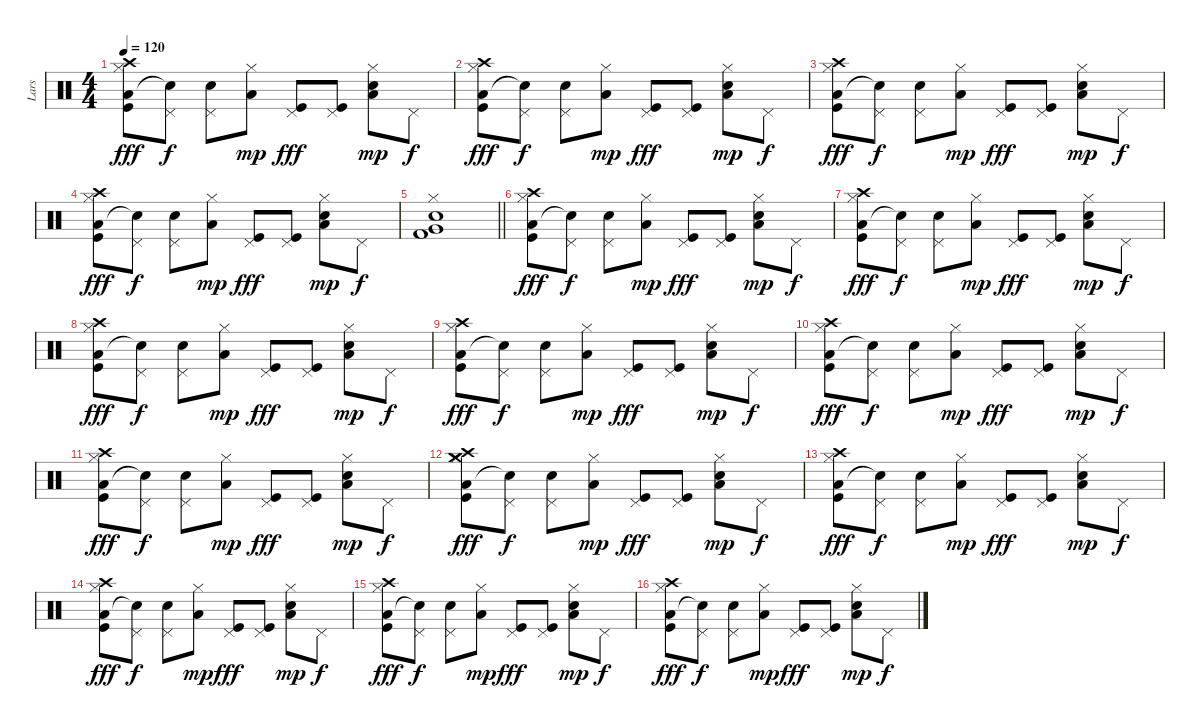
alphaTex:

\track ("Lars" "Lars") {instrument percussion}
\staff {score}
\articulation defaults
\ts (4 4)
\tempo 120
\clef neutral
\ks c
("Hi-Hat (closed)" "Low Floor Tom (hit)" "Crash high (hit)" "Kick (hit)").8{dy fff} ("Pedal Hi-Hat (hit)" "Snare (hit)"{t}).8{dy f} ("Pedal Hi-Hat (hit)" "Electric Snare (hit)").8 ("Hi-Hat (closed)" "Low Floor Tom (hit)").8{dy mp} ("Pedal Hi-Hat (hit)" "Kick (hit)").8{dy fff} ("Pedal Hi-Hat (hit)" "Kick (hit)").8 ("Hi-Hat (closed)" "Low Floor Tom (hit)" "Electric Snare (hit)").8{dy mp} "Pedal Hi-Hat (hit)".8{dy f} |
("Hi-Hat (closed)" "Low Floor Tom (hit)" "Crash high (hit)" "Kick (hit)").8{dy fff} ("Pedal Hi-Hat (hit)" "Snare (hit)"{t}).8{dy f} ("Pedal Hi-Hat (hit)" "Electric Snare (hit)").8 ("Hi-Hat (closed)" "Low Floor Tom (hit)").8{dy mp} ("Pedal Hi-Hat (hit)" "Kick (hit)").8{dy fff} ("Pedal Hi-Hat (hit)" "Kick (hit)").8 ("Hi-Hat (closed)" "Low Floor Tom (hit)" "Electric Snare (hit)").8{dy mp} "Pedal Hi-Hat (hit)".8{dy f} |
("Hi-Hat (closed)" "Low Floor Tom (hit)" "Crash high (hit)" "Kick (hit)").8{dy fff} ("Pedal Hi-Hat (hit)" "Snare (hit)"{t}).8{dy f} ("Pedal Hi-Hat (hit)" "Electric Snare (hit)").8 ("Hi-Hat (closed)" "Low Floor Tom (hit)").8{dy mp} ("Pedal Hi-Hat (hit)" "Kick (hit)").8{dy fff} ("Pedal Hi-Hat (hit)" "Kick (hit)").8 ("Hi-Hat (closed)" "Low Floor Tom (hit)" "Electric Snare (hit)").8{dy mp} "Pedal Hi-Hat (hit)".8{dy f} |
("Hi-Hat (closed)" "Low Floor Tom (hit)" "Crash high (hit)" "Kick (hit)").8{dy fff} ("Pedal Hi-Hat (hit)" "Snare (hit)"{t}).8{dy f} ("Pedal Hi-Hat (hit)" "Electric Snare (hit)").8 ("Hi-Hat (closed)" "Low Floor Tom (hit)").8{dy mp} ("Pedal Hi-Hat (hit)" "Kick (hit)").8{dy fff} ("Pedal Hi-Hat (hit)" "Kick (hit)").8 ("Hi-Hat (closed)" "Low Floor Tom (hit)" "Electric Snare (hit)").8{dy mp} "Pedal Hi-Hat (hit)".8{dy f} |
\barLineRight lightlight
("Kick (hit) 2" "Very Low Tom (hit)" "Electric Snare (hit)" "Hi-Hat (closed)").1 |
("Hi-Hat (closed)" "Low Floor Tom (hit)" "Crash high (hit)" "Kick (hit)").8{dy fff} ("Pedal Hi-Hat (hit)" "Snare (hit)"{t}).8{dy f} ("Pedal Hi-Hat (hit)" "Electric Snare (hit)").8 ("Hi-Hat (closed)" "Low Floor Tom (hit)").8{dy mp} ("Pedal Hi-Hat (hit)" "Kick (hit)").8{dy fff} ("Pedal Hi-Hat (hit)" "Kick (hit)").8 ("Hi-Hat (closed)" "Low Floor Tom (hit)" "Electric Snare (hit)").8{dy mp} "Pedal Hi-Hat (hit)".8{dy f} |
("Hi-Hat (closed)" "Low Floor Tom (hit)" "Crash high (hit)" "Kick (hit)").8{dy fff} ("Pedal Hi-Hat (hit)" "Snare (hit)"{t}).8{dy f} ("Pedal Hi-Hat (hit)" "Electric Snare (hit)").8 ("Hi-Hat (closed)" "Low Floor Tom (hit)").8{dy mp} ("Pedal Hi-Hat (hit)" "Kick (hit)").8{dy fff} ("Pedal Hi-Hat (hit)" "Kick (hit)").8 ("Hi-Hat (closed)" "Low Floor Tom (hit)" "Electric Snare (hit)").8{dy mp} "Pedal Hi-Hat (hit)".8{dy f} |
("Hi-Hat (closed)" "Low Floor Tom (hit)" "Crash high (hit)" "Kick (hit)").8{dy fff} ("Pedal Hi-Hat (hit)" "Snare (hit)"{t}).8{dy f} ("Pedal Hi-Hat (hit)" "Electric Snare (hit)").8 ("Hi-Hat (closed)" "Low Floor Tom (hit)").8{dy mp} ("Pedal Hi-Hat (hit)" "Kick (hit)").8{dy fff} ("Pedal Hi-Hat (hit)" "Kick (hit)").8 ("Hi-Hat (closed)" "Low Floor Tom (hit)" "Electric Snare (hit)").8{dy mp} "Pedal Hi-Hat (hit)".8{dy f} |
("Hi-Hat (closed)" "Low Floor Tom (hit)" "Crash high (hit)" "Kick (hit)").8{dy fff} ("Pedal Hi-Hat (hit)" "Snare (hit)"{t}).8{dy f} ("Pedal Hi-Hat (hit)" "Electric Snare (hit)").8 ("Hi-Hat (closed)" "Low Floor Tom (hit)").8{dy mp} ("Pedal Hi-Hat (hit)" "Kick (hit)").8{dy fff} ("Pedal Hi-Hat (hit)" "Kick (hit)").8 ("Hi-Hat (closed)" "Low Floor Tom (hit)" "Electric Snare (hit)").8{dy mp} "Pedal Hi-Hat (hit)".8{dy f} |
("Hi-Hat (closed)" "Low Floor Tom (hit)" "Crash high (hit)" "Kick (hit)").8{dy fff} ("Pedal Hi-Hat (hit)" "Snare (hit)"{t}).8{dy f} ("Pedal Hi-Hat (hit)" "Electric Snare (hit)").8 ("Hi-Hat (closed)" "Low Floor Tom (hit)").8{dy mp} ("Pedal Hi-Hat (hit)" "Kick (hit)").8{dy fff} ("Pedal Hi-Hat (hit)" "Kick (hit)").8 ("Hi-Hat (closed)" "Low Floor Tom (hit)" "Electric Snare (hit)").8{dy mp} "Pedal Hi-Hat (hit)".8{dy f} |
("Hi-Hat (closed)" "Low Floor Tom (hit)" "Crash high (hit)" "Kick (hit)").8{dy fff} ("Pedal Hi-Hat (hit)" "Snare (hit)"{t}).8{dy f} ("Pedal Hi-Hat (hit)" "Electric Snare (hit)").8 ("Hi-Hat (closed)" "Low Floor Tom (hit)").8{dy mp} ("Pedal Hi-Hat (hit)" "Kick (hit)").8{dy fff} ("Pedal Hi-Hat (hit)" "Kick (hit)").8 ("Hi-Hat (closed)" "Low Floor Tom (hit)" "Electric Snare (hit)").8{dy mp} "Pedal Hi-Hat (hit)".8{dy f} |
("Hi-Hat (closed)" "Low Floor Tom (hit)" "Crash high (hit)" "Crash medium (hit)" "Kick (hit)").8{dy fff} ("Pedal Hi-Hat (hit)" "Snare (hit)"{t}).8{dy f} ("Pedal Hi-Hat (hit)" "Electric Snare (hit)").8 ("Hi-Hat (closed)" "Low Floor Tom (hit)").8{dy mp} ("Pedal Hi-Hat (hit)" "Kick (hit)").8{dy fff} ("Pedal Hi-Hat (hit)" "Kick (hit)").8 ("Hi-Hat (closed)" "Low Floor Tom (hit)" "Electric Snare (hit)").8{dy mp} "Pedal Hi-Hat (hit)".8{dy f} |
("Hi-Hat (closed)" "Low Floor Tom (hit)" "Crash high (hit)" "Kick (hit)").8{dy fff} ("Pedal Hi-Hat (hit)" "Snare (hit)"{t}).8{dy f} ("Pedal Hi-Hat (hit)" "Electric Snare (hit)").8 ("Hi-Hat (closed)" "Low Floor Tom (hit)").8{dy mp} ("Pedal Hi-Hat (hit)" "Kick (hit)").8{dy fff} ("Pedal Hi-Hat (hit)" "Kick (hit)").8 ("Hi-Hat (closed)" "Low Floor Tom (hit)" "Electric Snare (hit)").8{dy mp} "Pedal Hi-Hat (hit)".8{dy f} |
("Hi-Hat (closed)" "Low Floor Tom (hit)" "Crash high (hit)" "Kick (hit)").8{dy fff} ("Pedal Hi-Hat (hit)" "Snare (hit)"{t}).8{dy f} ("Pedal Hi-Hat (hit)" "Electric Snare (hit)").8 ("Hi-Hat (closed)" "Low Floor Tom (hit)").8{dy mp} ("Pedal Hi-Hat (hit)" "Kick (hit)").8{dy fff} ("Pedal Hi-Hat (hit)" "Kick (hit)").8 ("Hi-Hat (closed)" "Low Floor Tom (hit)" "Electric Snare (hit)").8{dy mp} "Pedal Hi-Hat (hit)".8{dy f} |
("Hi-Hat (closed)" "Low Floor Tom (hit)" "Crash high (hit)" "Kick (hit)").8{dy fff} ("Pedal Hi-Hat (hit)" "Snare (hit)"{t}).8{dy f} ("Pedal Hi-Hat (hit)" "Electric Snare (hit)").8 ("Hi-Hat (closed)" "Low Floor Tom (hit)").8{dy mp} ("Pedal Hi-Hat (hit)" "Kick (hit)").8{dy fff} ("Pedal Hi-Hat (hit)" "Kick (hit)").8 ("Hi-Hat (closed)" "Low Floor Tom (hit)" "Electric Snare (hit)").8{dy mp} "Pedal Hi-Hat (hit)".8{dy f} |
("Hi-Hat (closed)" "Low Floor Tom (hit)" "Crash high (hit)" "Kick (hit)").8{dy fff} ("Pedal Hi-Hat (hit)" "Snare (hit)"{t}).8{dy f} ("Pedal Hi-Hat (hit)" "Electric Snare (hit)").8 ("Hi-Hat (closed)" "Low Floor Tom (hit)").8{dy mp} ("Pedal Hi-Hat (hit)" "Kick (hit)").8{dy fff} ("Pedal Hi-Hat (hit)" "Kick (hit)").8 ("Hi-Hat (closed)" "Low Floor Tom (hit)" "Electric Snare (hit)").8{dy mp} "Pedal Hi-Hat (hit)".8{dy f}
